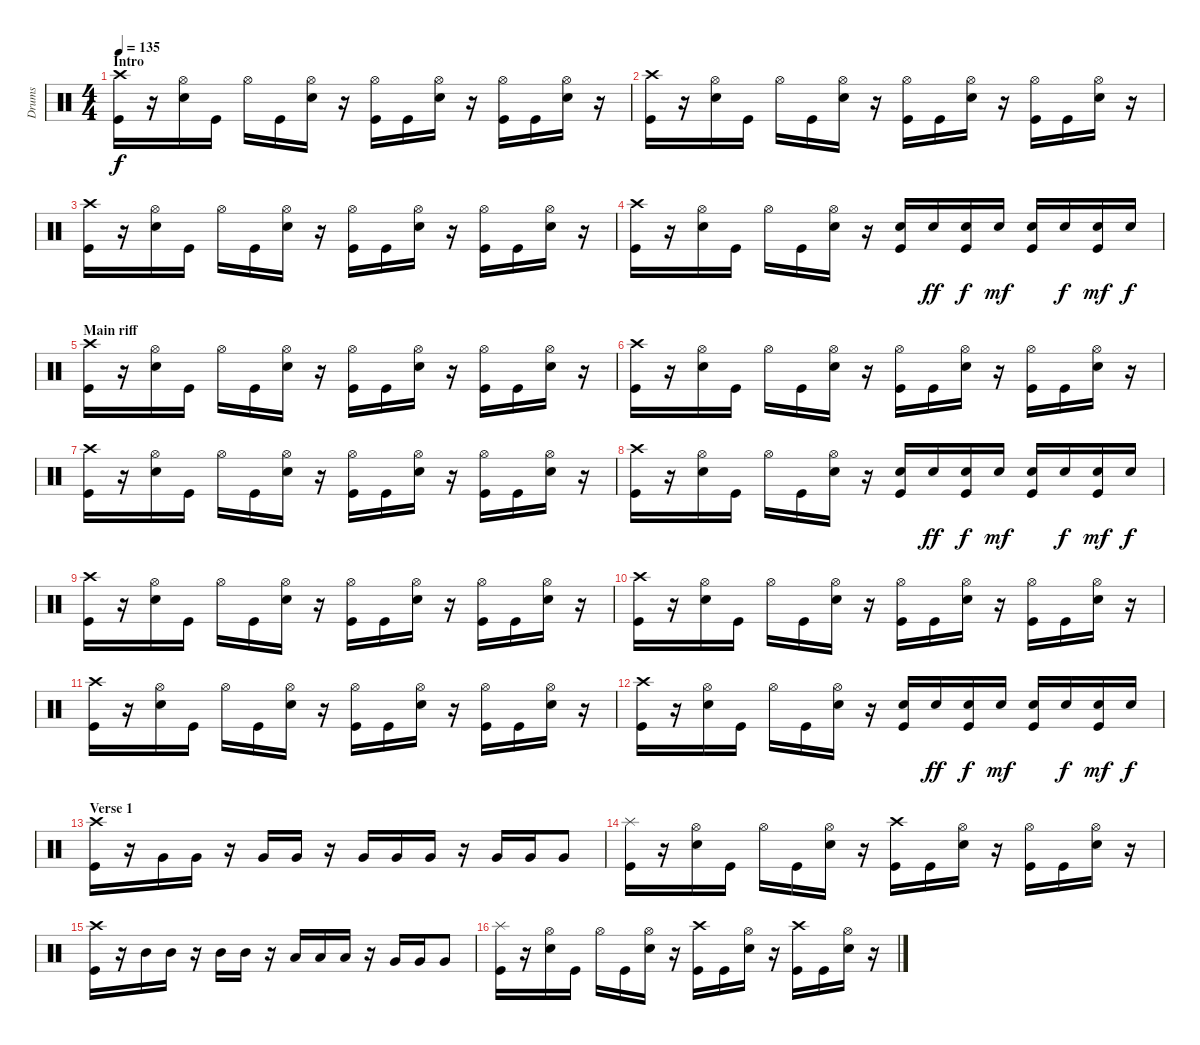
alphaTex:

\track ("Drums" "Drums") {instrument percussion}
\staff {score}
\articulation defaults
\ts (4 4)
\section ("" "Intro")
\tempo 135
\clef neutral
\ks c
("Crash high (hit)" "Kick (hit)").16{dy f} r.16 ("Hi-Hat (open)" "Snare (hit) 2").16 "Kick (hit)".16 "Hi-Hat (open)".16 "Kick (hit)".16 ("Hi-Hat (open)" "Snare (hit) 2").16 r.16 ("Hi-Hat (open)" "Kick (hit)").16 "Kick (hit)".16 ("Hi-Hat (open)" "Snare (hit) 2").16 r.16 ("Hi-Hat (open)" "Kick (hit)").16 "Kick (hit)".16 ("Hi-Hat (open)" "Snare (hit) 2").16 r.16 |
("Crash high (hit)" "Kick (hit)").16 r.16 ("Hi-Hat (open)" "Snare (hit) 2").16 "Kick (hit)".16 "Hi-Hat (open)".16 "Kick (hit)".16 ("Hi-Hat (open)" "Snare (hit) 2").16 r.16 ("Hi-Hat (open)" "Kick (hit)").16 "Kick (hit)".16 ("Hi-Hat (open)" "Snare (hit) 2").16 r.16 ("Hi-Hat (open)" "Kick (hit)").16 "Kick (hit)".16 ("Hi-Hat (open)" "Snare (hit) 2").16 r.16 |
("Crash high (hit)" "Kick (hit)").16 r.16 ("Hi-Hat (open)" "Snare (hit) 2").16 "Kick (hit)".16 "Hi-Hat (open)".16 "Kick (hit)".16 ("Hi-Hat (open)" "Snare (hit) 2").16 r.16 ("Hi-Hat (open)" "Kick (hit)").16 "Kick (hit)".16 ("Hi-Hat (open)" "Snare (hit) 2").16 r.16 ("Hi-Hat (open)" "Kick (hit)").16 "Kick (hit)".16 ("Hi-Hat (open)" "Snare (hit) 2").16 r.16 |
("Crash high (hit)" "Kick (hit)").16 r.16 ("Hi-Hat (open)" "Snare (hit) 2").16 "Kick (hit)".16 "Hi-Hat (open)".16 "Kick (hit)".16 ("Hi-Hat (open)" "Snare (hit) 2").16 r.16 ("Snare (hit) 2" "Kick (hit)").16 "Snare (hit) 2".16{dy ff} ("Snare (hit) 2" "Kick (hit)").16{dy f} "Snare (hit) 2".16{dy mf} ("Snare (hit) 2" "Kick (hit)").16 "Snare (hit) 2".16{dy f} ("Snare (hit) 2" "Kick (hit)").16{dy mf} "Snare (hit) 2".16{dy f} |
\section ("" "Main riff")
("Crash high (hit)" "Kick (hit)").16 r.16 ("Hi-Hat (open)" "Snare (hit) 2").16 "Kick (hit)".16 "Hi-Hat (open)".16 "Kick (hit)".16 ("Hi-Hat (open)" "Snare (hit) 2").16 r.16 ("Hi-Hat (open)" "Kick (hit)").16 "Kick (hit)".16 ("Hi-Hat (open)" "Snare (hit) 2").16 r.16 ("Hi-Hat (open)" "Kick (hit)").16 "Kick (hit)".16 ("Hi-Hat (open)" "Snare (hit) 2").16 r.16 |
("Crash high (hit)" "Kick (hit)").16 r.16 ("Hi-Hat (open)" "Snare (hit) 2").16 "Kick (hit)".16 "Hi-Hat (open)".16 "Kick (hit)".16 ("Hi-Hat (open)" "Snare (hit) 2").16 r.16 ("Hi-Hat (open)" "Kick (hit)").16 "Kick (hit)".16 ("Hi-Hat (open)" "Snare (hit) 2").16 r.16 ("Hi-Hat (open)" "Kick (hit)").16 "Kick (hit)".16 ("Hi-Hat (open)" "Snare (hit) 2").16 r.16 |
("Crash high (hit)" "Kick (hit)").16 r.16 ("Hi-Hat (open)" "Snare (hit) 2").16 "Kick (hit)".16 "Hi-Hat (open)".16 "Kick (hit)".16 ("Hi-Hat (open)" "Snare (hit) 2").16 r.16 ("Hi-Hat (open)" "Kick (hit)").16 "Kick (hit)".16 ("Hi-Hat (open)" "Snare (hit) 2").16 r.16 ("Hi-Hat (open)" "Kick (hit)").16 "Kick (hit)".16 ("Hi-Hat (open)" "Snare (hit) 2").16 r.16 |
("Crash high (hit)" "Kick (hit)").16 r.16 ("Hi-Hat (open)" "Snare (hit) 2").16 "Kick (hit)".16 "Hi-Hat (open)".16 "Kick (hit)".16 ("Hi-Hat (open)" "Snare (hit) 2").16 r.16 ("Snare (hit) 2" "Kick (hit)").16 "Snare (hit) 2".16{dy ff} ("Snare (hit) 2" "Kick (hit)").16{dy f} "Snare (hit) 2".16{dy mf} ("Snare (hit) 2" "Kick (hit)").16 "Snare (hit) 2".16{dy f} ("Snare (hit) 2" "Kick (hit)").16{dy mf} "Snare (hit) 2".16{dy f} |
("Crash high (hit)" "Kick (hit)").16 r.16 ("Hi-Hat (open)" "Snare (hit) 2").16 "Kick (hit)".16 "Hi-Hat (open)".16 "Kick (hit)".16 ("Hi-Hat (open)" "Snare (hit) 2").16 r.16 ("Hi-Hat (open)" "Kick (hit)").16 "Kick (hit)".16 ("Hi-Hat (open)" "Snare (hit) 2").16 r.16 ("Hi-Hat (open)" "Kick (hit)").16 "Kick (hit)".16 ("Hi-Hat (open)" "Snare (hit) 2").16 r.16 |
("Crash high (hit)" "Kick (hit)").16 r.16 ("Hi-Hat (open)" "Snare (hit) 2").16 "Kick (hit)".16 "Hi-Hat (open)".16 "Kick (hit)".16 ("Hi-Hat (open)" "Snare (hit) 2").16 r.16 ("Hi-Hat (open)" "Kick (hit)").16 "Kick (hit)".16 ("Hi-Hat (open)" "Snare (hit) 2").16 r.16 ("Hi-Hat (open)" "Kick (hit)").16 "Kick (hit)".16 ("Hi-Hat (open)" "Snare (hit) 2").16 r.16 |
("Crash high (hit)" "Kick (hit)").16 r.16 ("Hi-Hat (open)" "Snare (hit) 2").16 "Kick (hit)".16 "Hi-Hat (open)".16 "Kick (hit)".16 ("Hi-Hat (open)" "Snare (hit) 2").16 r.16 ("Hi-Hat (open)" "Kick (hit)").16 "Kick (hit)".16 ("Hi-Hat (open)" "Snare (hit) 2").16 r.16 ("Hi-Hat (open)" "Kick (hit)").16 "Kick (hit)".16 ("Hi-Hat (open)" "Snare (hit) 2").16 r.16 |
("Crash high (hit)" "Kick (hit)").16 r.16 ("Hi-Hat (open)" "Snare (hit) 2").16 "Kick (hit)".16 "Hi-Hat (open)".16 "Kick (hit)".16 ("Hi-Hat (open)" "Snare (hit) 2").16 r.16 ("Snare (hit) 2" "Kick (hit)").16 "Snare (hit) 2".16{dy ff} ("Snare (hit) 2" "Kick (hit)").16{dy f} "Snare (hit) 2".16{dy mf} ("Snare (hit) 2" "Kick (hit)").16 "Snare (hit) 2".16{dy f} ("Snare (hit) 2" "Kick (hit)").16{dy mf} "Snare (hit) 2".16{dy f} |
\section ("" "Verse 1")
("Crash high (hit)" "Kick (hit)").16 r.16 "Very Low Tom (hit)".16 "Very Low Tom (hit)".16 r.16 "Very Low Tom (hit)".16 "Very Low Tom (hit)".16 r.16 "Very Low Tom (hit)".16 "Very Low Tom (hit)".16 "Very Low Tom (hit)".16 r.16 "Very Low Tom (hit)".16 "Very Low Tom (hit)".16 "Very Low Tom (hit)".8 |
("Splash (hit)" "Kick (hit)").16 r.16 ("Hi-Hat (open)" "Snare (hit) 2").16 "Kick (hit)".16 "Hi-Hat (open)".16 "Kick (hit)".16 ("Hi-Hat (open)" "Snare (hit) 2").16 r.16 ("Crash high (hit)" "Kick (hit)").16 "Kick (hit)".16 ("Hi-Hat (open)" "Snare (hit) 2").16 r.16 ("Hi-Hat (open)" "Kick (hit)").16 "Kick (hit)".16 ("Hi-Hat (open)" "Snare (hit) 2").16 r.16 |
("Crash high (hit)" "Kick (hit)").16 r.16 "Mid Tom (hit)".16 "Mid Tom (hit)".16 r.16 "Mid Tom (hit)".16 "Mid Tom (hit)".16 r.16 "Low Tom (hit)".16 "Low Tom (hit)".16 "Low Tom (hit)".16 r.16 "Very Low Tom (hit)".16 "Very Low Tom (hit)".16 "Very Low Tom (hit)".8 |
("Splash (hit)" "Kick (hit)").16 r.16 ("Hi-Hat (open)" "Snare (hit) 2").16 "Kick (hit)".16 "Hi-Hat (open)".16 "Kick (hit)".16 ("Hi-Hat (open)" "Snare (hit) 2").16 r.16 ("Crash high (hit)" "Kick (hit)").16 "Kick (hit)".16 ("Hi-Hat (open)" "Snare (hit) 2").16 r.16 ("Crash high (hit)" "Kick (hit)").16 "Kick (hit)".16 ("Hi-Hat (open)" "Snare (hit) 2").16 r.16
